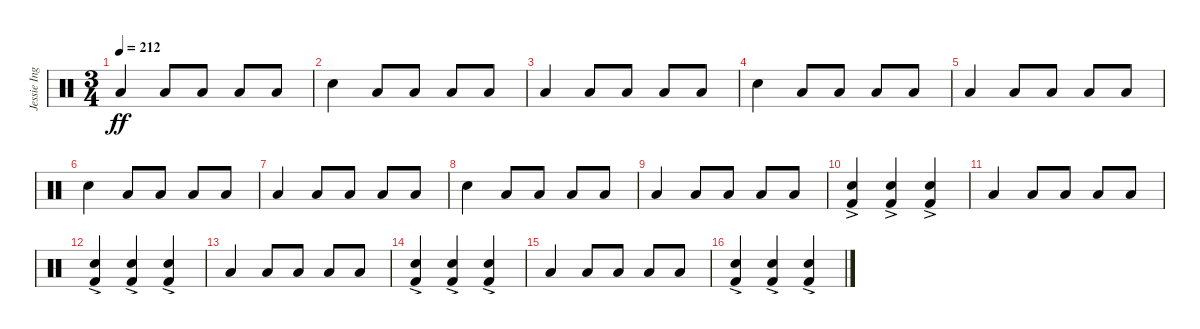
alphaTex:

\track ("Jessie Ingelevics" "Jessie Ing") {instrument percussion}
\staff {score}
\articulation defaults
\ts (3 4)
\tempo 212
\clef neutral
\ks c "Low Tom (hit)".4{dy ff} "Low Floor Tom (hit)".8 "Low Floor Tom (hit)".8 "Low Floor Tom (hit)".8 "Low Floor Tom (hit)".8
|
"Electric Snare (hit)".4 "Low Floor Tom (hit)".8 "Low Floor Tom (hit)".8 "Low Floor Tom (hit)".8 "Low Floor Tom (hit)".8 |
"Low Tom (hit)".4 "Low Floor Tom (hit)".8 "Low Floor Tom (hit)".8 "Low Floor Tom (hit)".8 "Low Floor Tom (hit)".8 |
"Electric Snare (hit)".4 "Low Floor Tom (hit)".8 "Low Floor Tom (hit)".8 "Low Floor Tom (hit)".8 "Low Floor Tom (hit)".8 |
"Low Tom (hit)".4 "Low Floor Tom (hit)".8 "Low Floor Tom (hit)".8 "Low Floor Tom (hit)".8 "Low Floor Tom (hit)".8 |
"Electric Snare (hit)".4 "Low Floor Tom (hit)".8 "Low Floor Tom (hit)".8 "Low Floor Tom (hit)".8 "Low Floor Tom (hit)".8 |
"Low Tom (hit)".4 "Low Floor Tom (hit)".8 "Low Floor Tom (hit)".8 "Low Floor Tom (hit)".8 "Low Floor Tom (hit)".8 |
"Electric Snare (hit)".4 "Low Floor Tom (hit)".8 "Low Floor Tom (hit)".8 "Low Floor Tom (hit)".8 "Low Floor Tom (hit)".8 |
"Low Tom (hit)".4 "Low Floor Tom (hit)".8 "Low Floor Tom (hit)".8 "Low Floor Tom (hit)".8 "Low Floor Tom (hit)".8 |
("Electric Snare (hit)"{ac} "Kick (hit) 2").4 ("Electric Snare (hit)"{ac} "Kick (hit) 2").4 ("Electric Snare (hit)"{ac} "Kick (hit) 2").4 |
"Low Tom (hit)".4 "Low Floor Tom (hit)".8 "Low Floor Tom (hit)".8 "Low Floor Tom (hit)".8 "Low Floor Tom (hit)".8 |
("Electric Snare (hit)"{ac} "Kick (hit) 2").4 ("Electric Snare (hit)"{ac} "Kick (hit) 2").4 ("Electric Snare (hit)"{ac} "Kick (hit) 2").4 |
"Low Tom (hit)".4 "Low Floor Tom (hit)".8 "Low Floor Tom (hit)".8 "Low Floor Tom (hit)".8 "Low Floor Tom (hit)".8 |
("Electric Snare (hit)"{ac} "Kick (hit) 2").4 ("Electric Snare (hit)"{ac} "Kick (hit) 2").4 ("Electric Snare (hit)"{ac} "Kick (hit) 2").4 |
"Low Tom (hit)".4 "Low Floor Tom (hit)".8 "Low Floor Tom (hit)".8 "Low Floor Tom (hit)".8 "Low Floor Tom (hit)".8 |
("Electric Snare (hit)"{ac} "Kick (hit) 2").4 ("Electric Snare (hit)"{ac} "Kick (hit) 2").4 ("Electric Snare (hit)"{ac} "Kick (hit) 2").4
